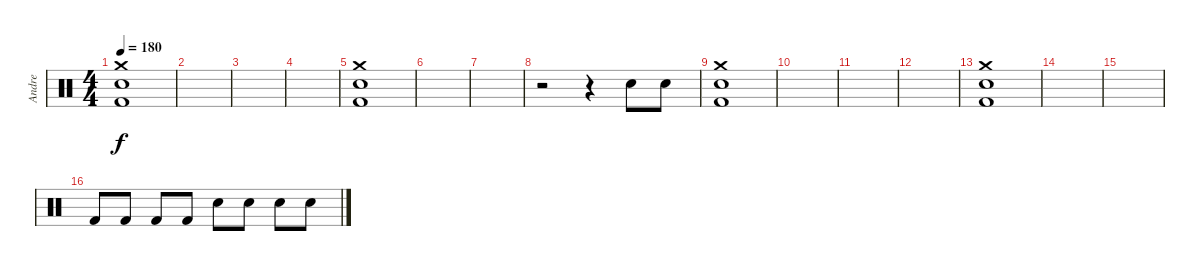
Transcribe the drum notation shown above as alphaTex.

\track ("Andre" "Andre") {instrument percussion}
\staff {score}
\articulation defaults
\ts (4 4)
\tempo 180
\clef neutral
\ks c
("Crash medium (hit)" "Snare (hit) 2" "Kick (hit) 2").1{dy f} |
|
|
|
("Crash medium (hit)" "Snare (hit) 2" "Kick (hit) 2").1 |
|
|
r.2 r.4 "Snare (hit) 2".8 "Snare (hit) 2".8 |
("Crash medium (hit)" "Snare (hit) 2" "Kick (hit) 2").1 |
|
|
|
("Crash medium (hit)" "Snare (hit) 2" "Kick (hit) 2").1 |
|
|
"Kick (hit) 2".8 "Kick (hit) 2".8 "Kick (hit) 2".8 "Kick (hit) 2".8 "Snare (hit) 2".8 "Snare (hit) 2".8 "Snare (hit) 2".8 "Snare (hit) 2".8
